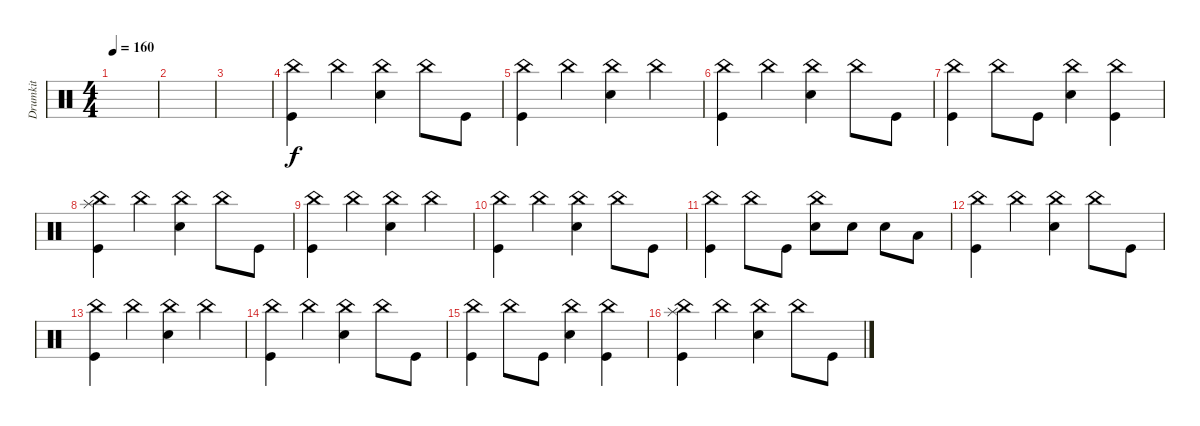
\track ("Drumkit" "Drumkit") {instrument percussion}
\staff {score}
\articulation defaults
\ts (4 4)
\tempo 160
\clef neutral
\ks c
|
|
|
("Kick (hit)" "China (hit)").4 "China (hit)".4 ("China (hit)" "Snare (hit) 2").4 "China (hit)".8 "Kick (hit)".8 |
("China (hit)" "Kick (hit)").4 "China (hit)".4 ("China (hit)" "Snare (hit) 2").4 "China (hit)".4 |
("Kick (hit)" "China (hit)").4 "China (hit)".4 ("China (hit)" "Snare (hit) 2").4 "China (hit)".8 "Kick (hit)".8 |
("Kick (hit)" "China (hit)").4 "China (hit)".8 "Kick (hit)".8 ("Snare (hit) 2" "China (hit)").4 ("Kick (hit)" "China (hit)").4 |
("Kick (hit)" "China (hit)" "Splash (hit)").4 "China (hit)".4 ("China (hit)" "Snare (hit) 2").4 "China (hit)".8 "Kick (hit)".8 |
("China (hit)" "Kick (hit)").4 "China (hit)".4 ("China (hit)" "Snare (hit) 2").4 "China (hit)".4 |
("Kick (hit)" "China (hit)").4 "China (hit)".4 ("China (hit)" "Snare (hit) 2").4 "China (hit)".8 "Kick (hit)".8 |
("Kick (hit)" "China (hit)").4 "China (hit)".8 "Kick (hit)".8 ("Snare (hit) 2" "China (hit)").8 "Snare (hit) 2".8 "Snare (hit) 2".8 "Low Tom (hit)".8 |
("Kick (hit)" "China (hit)").4 "China (hit)".4 ("China (hit)" "Snare (hit) 2").4 "China (hit)".8 "Kick (hit)".8 |
("China (hit)" "Kick (hit)").4 "China (hit)".4 ("China (hit)" "Snare (hit) 2").4 "China (hit)".4 |
("Kick (hit)" "China (hit)").4 "China (hit)".4 ("China (hit)" "Snare (hit) 2").4 "China (hit)".8 "Kick (hit)".8 |
("Kick (hit)" "China (hit)").4 "China (hit)".8 "Kick (hit)".8 ("Snare (hit) 2" "China (hit)").4 ("Kick (hit)" "China (hit)").4 |
("Kick (hit)" "China (hit)" "Splash (hit)").4 "China (hit)".4 ("China (hit)" "Snare (hit) 2").4 "China (hit)".8 "Kick (hit)".8
